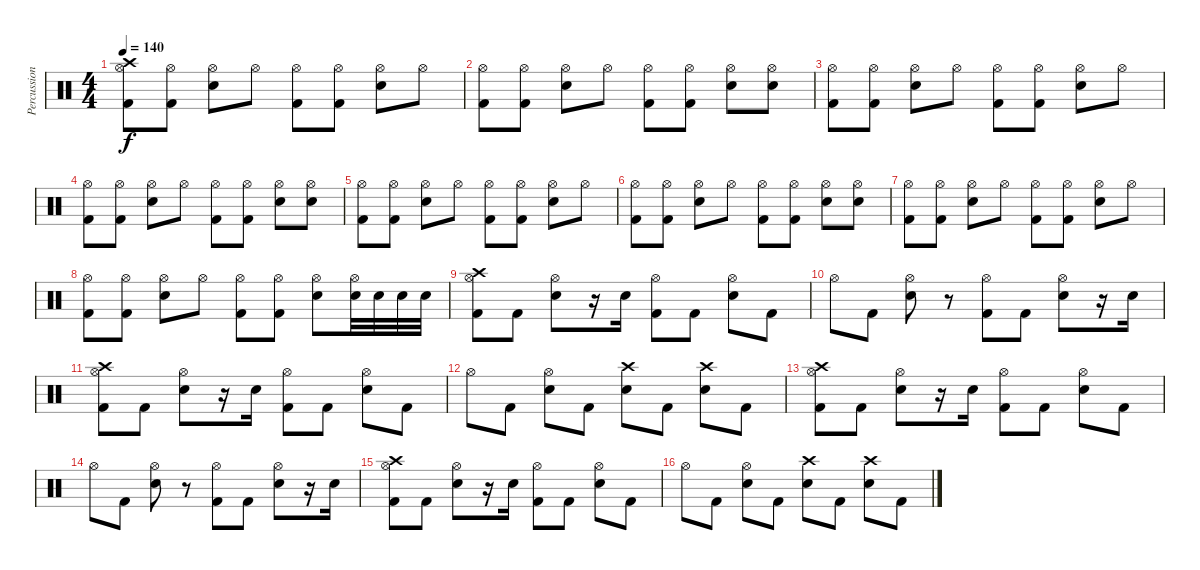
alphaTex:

\track ("Percussion" "Percussion") {instrument percussion}
\staff {score}
\articulation defaults
\ts (4 4)
\tempo 140
\clef neutral
\ks c
("Kick (hit) 2" "Hi-Hat (open)" "Crash high (hit)").8{dy f} ("Kick (hit) 2" "Hi-Hat (open)").8 ("Snare (hit) 2" "Hi-Hat (open)").8 "Hi-Hat (open)".8 ("Kick (hit) 2" "Hi-Hat (open)").8 ("Kick (hit) 2" "Hi-Hat (open)").8 ("Snare (hit) 2" "Hi-Hat (open)").8 "Hi-Hat (open)".8 |
("Kick (hit) 2" "Hi-Hat (open)").8 ("Kick (hit) 2" "Hi-Hat (open)").8 ("Snare (hit) 2" "Hi-Hat (open)").8 "Hi-Hat (open)".8 ("Kick (hit) 2" "Hi-Hat (open)").8 ("Kick (hit) 2" "Hi-Hat (open)").8 ("Snare (hit) 2" "Hi-Hat (open)").8 ("Snare (hit) 2" "Hi-Hat (open)").8 |
("Kick (hit) 2" "Hi-Hat (open)").8 ("Kick (hit) 2" "Hi-Hat (open)").8 ("Snare (hit) 2" "Hi-Hat (open)").8 "Hi-Hat (open)".8 ("Kick (hit) 2" "Hi-Hat (open)").8 ("Kick (hit) 2" "Hi-Hat (open)").8 ("Snare (hit) 2" "Hi-Hat (open)").8 "Hi-Hat (open)".8 |
("Kick (hit) 2" "Hi-Hat (open)").8 ("Kick (hit) 2" "Hi-Hat (open)").8 ("Snare (hit) 2" "Hi-Hat (open)").8 "Hi-Hat (open)".8 ("Kick (hit) 2" "Hi-Hat (open)").8 ("Kick (hit) 2" "Hi-Hat (open)").8 ("Snare (hit) 2" "Hi-Hat (open)").8 ("Snare (hit) 2" "Hi-Hat (open)").8 |
("Kick (hit) 2" "Hi-Hat (open)").8 ("Kick (hit) 2" "Hi-Hat (open)").8 ("Snare (hit) 2" "Hi-Hat (open)").8 "Hi-Hat (open)".8 ("Kick (hit) 2" "Hi-Hat (open)").8 ("Kick (hit) 2" "Hi-Hat (open)").8 ("Snare (hit) 2" "Hi-Hat (open)").8 "Hi-Hat (open)".8 |
("Kick (hit) 2" "Hi-Hat (open)").8 ("Kick (hit) 2" "Hi-Hat (open)").8 ("Snare (hit) 2" "Hi-Hat (open)").8 "Hi-Hat (open)".8 ("Kick (hit) 2" "Hi-Hat (open)").8 ("Kick (hit) 2" "Hi-Hat (open)").8 ("Snare (hit) 2" "Hi-Hat (open)").8 ("Snare (hit) 2" "Hi-Hat (open)").8 |
("Kick (hit) 2" "Hi-Hat (open)").8 ("Kick (hit) 2" "Hi-Hat (open)").8 ("Snare (hit) 2" "Hi-Hat (open)").8 "Hi-Hat (open)".8 ("Kick (hit) 2" "Hi-Hat (open)").8 ("Kick (hit) 2" "Hi-Hat (open)").8 ("Snare (hit) 2" "Hi-Hat (open)").8 "Hi-Hat (open)".8 |
("Kick (hit) 2" "Hi-Hat (open)").8 ("Kick (hit) 2" "Hi-Hat (open)").8 ("Snare (hit) 2" "Hi-Hat (open)").8 "Hi-Hat (open)".8 ("Kick (hit) 2" "Hi-Hat (open)").8 ("Kick (hit) 2" "Hi-Hat (open)").8 ("Snare (hit) 2" "Hi-Hat (open)").8 ("Snare (hit) 2" "Hi-Hat (open)").32 "Snare (hit) 2".32 "Snare (hit) 2".32 "Snare (hit) 2".32 |
("Kick (hit) 2" "Hi-Hat (open)" "Crash high (hit)").8 "Kick (hit) 2".8 ("Snare (hit) 2" "Hi-Hat (open)").8 r.16 "Snare (hit) 2".16 ("Kick (hit) 2" "Hi-Hat (open)").8 "Kick (hit) 2".8 ("Snare (hit) 2" "Hi-Hat (open)").8 "Kick (hit) 2".8 |
"Hi-Hat (open)".8 "Kick (hit) 2".8 ("Snare (hit) 2" "Hi-Hat (open)").8 r.8 ("Kick (hit) 2" "Hi-Hat (open)").8 "Kick (hit) 2".8 ("Snare (hit) 2" "Hi-Hat (open)").8 r.16 "Snare (hit) 2".16 |
("Kick (hit) 2" "Hi-Hat (open)" "Crash high (hit)").8 "Kick (hit) 2".8 ("Snare (hit) 2" "Hi-Hat (open)").8 r.16 "Snare (hit) 2".16 ("Kick (hit) 2" "Hi-Hat (open)").8 "Kick (hit) 2".8 ("Snare (hit) 2" "Hi-Hat (open)").8 "Kick (hit) 2".8 |
"Hi-Hat (open)".8 "Kick (hit) 2".8 ("Snare (hit) 2" "Hi-Hat (open)").8 "Kick (hit) 2".8 ("Snare (hit) 2" "Crash high (hit)").8 "Kick (hit) 2".8 ("Snare (hit) 2" "Crash high (hit)").8 "Kick (hit) 2".8 |
("Kick (hit) 2" "Hi-Hat (open)" "Crash high (hit)").8 "Kick (hit) 2".8 ("Snare (hit) 2" "Hi-Hat (open)").8 r.16 "Snare (hit) 2".16 ("Kick (hit) 2" "Hi-Hat (open)").8 "Kick (hit) 2".8 ("Snare (hit) 2" "Hi-Hat (open)").8 "Kick (hit) 2".8 |
"Hi-Hat (open)".8 "Kick (hit) 2".8 ("Snare (hit) 2" "Hi-Hat (open)").8 r.8 ("Kick (hit) 2" "Hi-Hat (open)").8 "Kick (hit) 2".8 ("Snare (hit) 2" "Hi-Hat (open)").8 r.16 "Snare (hit) 2".16 |
("Kick (hit) 2" "Hi-Hat (open)" "Crash high (hit)").8 "Kick (hit) 2".8 ("Snare (hit) 2" "Hi-Hat (open)").8 r.16 "Snare (hit) 2".16 ("Kick (hit) 2" "Hi-Hat (open)").8 "Kick (hit) 2".8 ("Snare (hit) 2" "Hi-Hat (open)").8 "Kick (hit) 2".8 |
"Hi-Hat (open)".8 "Kick (hit) 2".8 ("Snare (hit) 2" "Hi-Hat (open)").8 "Kick (hit) 2".8 ("Snare (hit) 2" "Crash high (hit)").8 "Kick (hit) 2".8 ("Snare (hit) 2" "Crash high (hit)").8 "Kick (hit) 2".8
